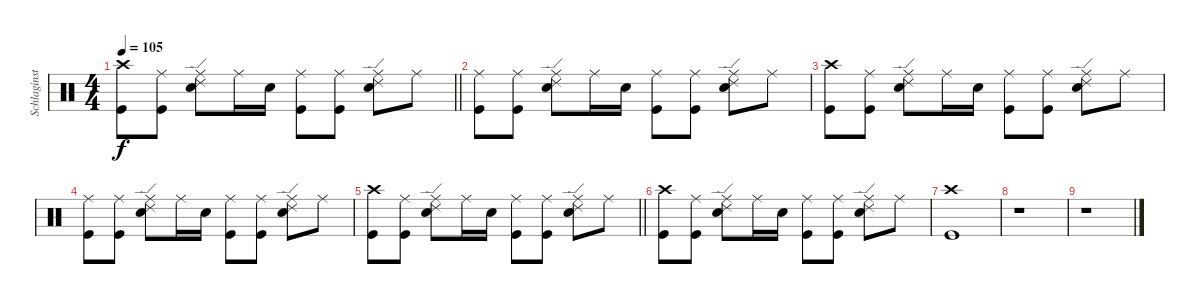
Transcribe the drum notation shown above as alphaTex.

\track ("Schlaginstrumente - Auswahl" "Schlaginst") {instrument percussion}
\staff {score}
\articulation defaults
\ts (4 4)
\tempo 105
\clef neutral
\barLineRight lightlight
\ks c
("Crash high (hit)" "Kick (hit)").8{dy f} ("Ride (middle)" "Kick (hit)").8 ("Ride (middle)" "Ride (edge) 2" "Snare (hit) 2").8 "Ride (middle)".16 "Snare (hit) 2".16 ("Ride (middle)" "Kick (hit)").8 ("Ride (middle)" "Kick (hit)").8 ("Ride (middle)" "Ride (edge) 2" "Snare (hit) 2").8 "Ride (middle)".8 |
("Ride (middle)" "Kick (hit)").8 ("Ride (middle)" "Kick (hit)").8 ("Ride (middle)" "Ride (edge) 2" "Snare (hit) 2").8 "Ride (middle)".16 "Snare (hit) 2".16 ("Ride (middle)" "Kick (hit)").8 ("Ride (middle)" "Kick (hit)").8 ("Ride (middle)" "Ride (edge) 2" "Snare (hit) 2").8 "Ride (middle)".8 |
("Crash high (hit)" "Kick (hit)").8 ("Ride (middle)" "Kick (hit)").8 ("Ride (middle)" "Ride (edge) 2" "Snare (hit) 2").8 "Ride (middle)".16 "Snare (hit) 2".16 ("Ride (middle)" "Kick (hit)").8 ("Ride (middle)" "Kick (hit)").8 ("Ride (middle)" "Ride (edge) 2" "Snare (hit) 2").8 "Ride (middle)".8 |
("Ride (middle)" "Kick (hit)").8 ("Ride (middle)" "Kick (hit)").8 ("Ride (middle)" "Ride (edge) 2" "Snare (hit) 2").8 "Ride (middle)".16 "Snare (hit) 2".16 ("Ride (middle)" "Kick (hit)").8 ("Ride (middle)" "Kick (hit)").8 ("Ride (middle)" "Ride (edge) 2" "Snare (hit) 2").8 "Ride (middle)".8 |
\barLineRight lightlight
("Crash high (hit)" "Kick (hit)").8 ("Ride (middle)" "Kick (hit)").8 ("Ride (middle)" "Ride (edge) 2" "Snare (hit) 2").8 "Ride (middle)".16 "Snare (hit) 2".16 ("Ride (middle)" "Kick (hit)").8 ("Ride (middle)" "Kick (hit)").8 ("Ride (middle)" "Ride (edge) 2" "Snare (hit) 2").8 "Ride (middle)".8 |
("Crash high (hit)" "Kick (hit)").8 ("Ride (middle)" "Kick (hit)").8 ("Ride (middle)" "Ride (edge) 2" "Snare (hit) 2").8 "Ride (middle)".16 "Snare (hit) 2".16 ("Ride (middle)" "Kick (hit)").8 ("Ride (middle)" "Kick (hit)").8 ("Ride (middle)" "Ride (edge) 2" "Snare (hit) 2").8 "Ride (middle)".8 |
("Crash high (hit)" "Kick (hit)").1 |
r.1 |
r.1
